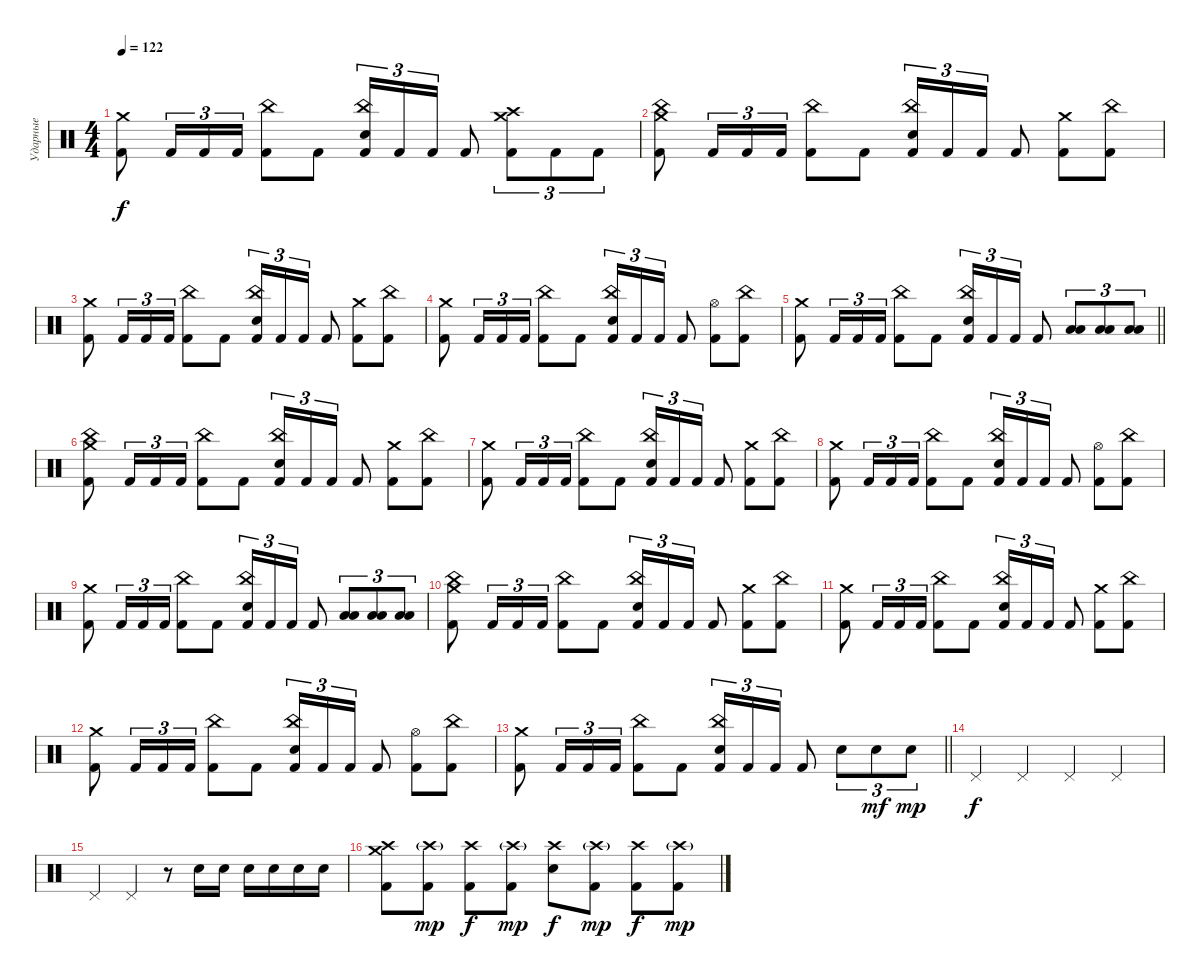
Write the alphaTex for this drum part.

\track ("Ударные" "Ударные") {instrument percussion}
\staff {score}
\articulation defaults
\ts (4 4)
\tempo 122
\clef neutral
\ks c
("Crash medium (hit)" "Kick (hit) 2").8{dy f} "Kick (hit) 2".16{tu (3 2)} "Kick (hit) 2".16{tu (3 2)} "Kick (hit) 2".16{tu (3 2)} ("China (hit)" "Kick (hit) 2").8 "Kick (hit) 2".8 ("China (hit)" "Electric Snare (hit)" "Kick (hit) 2").16{tu (3 2)} "Kick (hit) 2".16{tu (3 2)} "Kick (hit) 2".16{tu (3 2)} "Kick (hit) 2".8 ("Crash high (hit)" "Crash medium (hit)" "Kick (hit) 2").8{tu (3 2)} "Kick (hit) 2".8{tu (3 2)} "Kick (hit) 2".8{tu (3 2)} |
("China (hit)" "Crash medium (hit)" "Kick (hit) 2").8 "Kick (hit) 2".16{tu (3 2)} "Kick (hit) 2".16{tu (3 2)} "Kick (hit) 2".16{tu (3 2)} ("China (hit)" "Kick (hit) 2").8 "Kick (hit) 2".8 ("China (hit)" "Electric Snare (hit)" "Kick (hit) 2").16{tu (3 2)} "Kick (hit) 2".16{tu (3 2)} "Kick (hit) 2".16{tu (3 2)} "Kick (hit) 2".8 ("Crash medium (hit)" "Kick (hit) 2").8 ("China (hit)" "Kick (hit) 2").8 |
("Crash medium (hit)" "Kick (hit) 2").8 "Kick (hit) 2".16{tu (3 2)} "Kick (hit) 2".16{tu (3 2)} "Kick (hit) 2".16{tu (3 2)} ("China (hit)" "Kick (hit) 2").8 "Kick (hit) 2".8 ("China (hit)" "Electric Snare (hit)" "Kick (hit) 2").16{tu (3 2)} "Kick (hit) 2".16{tu (3 2)} "Kick (hit) 2".16{tu (3 2)} "Kick (hit) 2".8 ("Crash medium (hit)" "Kick (hit) 2").8 ("China (hit)" "Kick (hit) 2").8 |
("Crash medium (hit)" "Kick (hit) 2").8 "Kick (hit) 2".16{tu (3 2)} "Kick (hit) 2".16{tu (3 2)} "Kick (hit) 2".16{tu (3 2)} ("China (hit)" "Kick (hit) 2").8 "Kick (hit) 2".8 ("China (hit)" "Electric Snare (hit)" "Kick (hit) 2").16{tu (3 2)} "Kick (hit) 2".16{tu (3 2)} "Kick (hit) 2".16{tu (3 2)} "Kick (hit) 2".8 ("Hi-Hat (open)" "Kick (hit) 2").8 ("China (hit)" "Kick (hit) 2").8 |
\barLineRight lightlight
("Crash medium (hit)" "Kick (hit) 2").8 "Kick (hit) 2".16{tu (3 2)} "Kick (hit) 2".16{tu (3 2)} "Kick (hit) 2".16{tu (3 2)} ("China (hit)" "Kick (hit) 2").8 "Kick (hit) 2".8 ("China (hit)" "Electric Snare (hit)" "Kick (hit) 2").16{tu (3 2)} "Kick (hit) 2".16{tu (3 2)} "Kick (hit) 2".16{tu (3 2)} "Kick (hit) 2".8 ("Low Floor Tom (hit)" "Low Tom (hit)").8{tu (3 2)} ("Low Floor Tom (hit)" "Low Tom (hit)").8{tu (3 2)} ("Low Floor Tom (hit)" "Low Tom (hit)").8{tu (3 2)} |
("China (hit)" "Crash medium (hit)" "Kick (hit) 2").8 "Kick (hit) 2".16{tu (3 2)} "Kick (hit) 2".16{tu (3 2)} "Kick (hit) 2".16{tu (3 2)} ("China (hit)" "Kick (hit) 2").8 "Kick (hit) 2".8 ("China (hit)" "Electric Snare (hit)" "Kick (hit) 2").16{tu (3 2)} "Kick (hit) 2".16{tu (3 2)} "Kick (hit) 2".16{tu (3 2)} "Kick (hit) 2".8 ("Crash medium (hit)" "Kick (hit) 2").8 ("China (hit)" "Kick (hit) 2").8 |
("Crash medium (hit)" "Kick (hit) 2").8 "Kick (hit) 2".16{tu (3 2)} "Kick (hit) 2".16{tu (3 2)} "Kick (hit) 2".16{tu (3 2)} ("China (hit)" "Kick (hit) 2").8 "Kick (hit) 2".8 ("China (hit)" "Electric Snare (hit)" "Kick (hit) 2").16{tu (3 2)} "Kick (hit) 2".16{tu (3 2)} "Kick (hit) 2".16{tu (3 2)} "Kick (hit) 2".8 ("Crash medium (hit)" "Kick (hit) 2").8 ("China (hit)" "Kick (hit) 2").8 |
("Crash medium (hit)" "Kick (hit) 2").8 "Kick (hit) 2".16{tu (3 2)} "Kick (hit) 2".16{tu (3 2)} "Kick (hit) 2".16{tu (3 2)} ("China (hit)" "Kick (hit) 2").8 "Kick (hit) 2".8 ("China (hit)" "Electric Snare (hit)" "Kick (hit) 2").16{tu (3 2)} "Kick (hit) 2".16{tu (3 2)} "Kick (hit) 2".16{tu (3 2)} "Kick (hit) 2".8 ("Hi-Hat (open)" "Kick (hit) 2").8 ("China (hit)" "Kick (hit) 2").8 |
("Crash medium (hit)" "Kick (hit) 2").8 "Kick (hit) 2".16{tu (3 2)} "Kick (hit) 2".16{tu (3 2)} "Kick (hit) 2".16{tu (3 2)} ("China (hit)" "Kick (hit) 2").8 "Kick (hit) 2".8 ("China (hit)" "Electric Snare (hit)" "Kick (hit) 2").16{tu (3 2)} "Kick (hit) 2".16{tu (3 2)} "Kick (hit) 2".16{tu (3 2)} "Kick (hit) 2".8 ("Low Floor Tom (hit)" "Low Tom (hit)").8{tu (3 2)} ("Low Floor Tom (hit)" "Low Tom (hit)").8{tu (3 2)} ("Low Floor Tom (hit)" "Low Tom (hit)").8{tu (3 2)} |
("China (hit)" "Crash medium (hit)" "Kick (hit) 2").8 "Kick (hit) 2".16{tu (3 2)} "Kick (hit) 2".16{tu (3 2)} "Kick (hit) 2".16{tu (3 2)} ("China (hit)" "Kick (hit) 2").8 "Kick (hit) 2".8 ("China (hit)" "Electric Snare (hit)" "Kick (hit) 2").16{tu (3 2)} "Kick (hit) 2".16{tu (3 2)} "Kick (hit) 2".16{tu (3 2)} "Kick (hit) 2".8 ("Crash medium (hit)" "Kick (hit) 2").8 ("China (hit)" "Kick (hit) 2").8 |
("Crash medium (hit)" "Kick (hit) 2").8 "Kick (hit) 2".16{tu (3 2)} "Kick (hit) 2".16{tu (3 2)} "Kick (hit) 2".16{tu (3 2)} ("China (hit)" "Kick (hit) 2").8 "Kick (hit) 2".8 ("China (hit)" "Electric Snare (hit)" "Kick (hit) 2").16{tu (3 2)} "Kick (hit) 2".16{tu (3 2)} "Kick (hit) 2".16{tu (3 2)} "Kick (hit) 2".8 ("Crash medium (hit)" "Kick (hit) 2").8 ("China (hit)" "Kick (hit) 2").8 |
("Crash medium (hit)" "Kick (hit) 2").8 "Kick (hit) 2".16{tu (3 2)} "Kick (hit) 2".16{tu (3 2)} "Kick (hit) 2".16{tu (3 2)} ("China (hit)" "Kick (hit) 2").8 "Kick (hit) 2".8 ("China (hit)" "Electric Snare (hit)" "Kick (hit) 2").16{tu (3 2)} "Kick (hit) 2".16{tu (3 2)} "Kick (hit) 2".16{tu (3 2)} "Kick (hit) 2".8 ("Hi-Hat (open)" "Kick (hit) 2").8 ("China (hit)" "Kick (hit) 2").8 |
\barLineRight lightlight
("Crash medium (hit)" "Kick (hit) 2").8 "Kick (hit) 2".16{tu (3 2)} "Kick (hit) 2".16{tu (3 2)} "Kick (hit) 2".16{tu (3 2)} ("China (hit)" "Kick (hit) 2").8 "Kick (hit) 2".8 ("China (hit)" "Electric Snare (hit)" "Kick (hit) 2").16{tu (3 2)} "Kick (hit) 2".16{tu (3 2)} "Kick (hit) 2".16{tu (3 2)} "Kick (hit) 2".8 "Electric Snare (hit)".8{tu (3 2)} "Electric Snare (hit)".8{tu (3 2) dy mf} "Electric Snare (hit)".8{tu (3 2) dy mp} |
"Pedal Hi-Hat (hit)".4{dy f} "Pedal Hi-Hat (hit)".4 "Pedal Hi-Hat (hit)".4 "Pedal Hi-Hat (hit)".4 |
"Pedal Hi-Hat (hit)".4 "Pedal Hi-Hat (hit)".4 r.8{volume 0} "Electric Snare (hit)".16{volume 13} "Electric Snare (hit)".16 "Electric Snare (hit)".16 "Electric Snare (hit)".16 "Electric Snare (hit)".16 "Electric Snare (hit)".16 |
("Crash medium (hit)" "Crash high (hit)" "Kick (hit) 2").8 ("Crash high (hit)"{g} "Kick (hit) 2").8{dy mp} ("Crash high (hit)" "Kick (hit) 2").8{dy f} ("Crash high (hit)"{g} "Kick (hit) 2").8{dy mp} ("Crash high (hit)" "Electric Snare (hit)").8{dy f} ("Crash high (hit)"{g} "Kick (hit) 2").8{dy mp} ("Crash high (hit)" "Kick (hit) 2").8{dy f} ("Crash high (hit)"{g} "Kick (hit) 2").8{dy mp}
